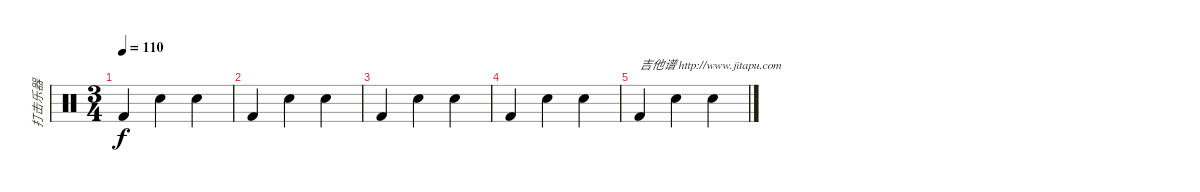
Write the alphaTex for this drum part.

\track ("打击乐器" "打击乐器") {instrument percussion}
\staff {score}
\articulation defaults
\ts (3 4)
\tempo 110
\clef neutral
\ks c "Kick (hit) 2".4{dy f} "Snare (hit) 2".4 "Snare (hit) 2".4
|
"Kick (hit) 2".4 "Snare (hit) 2".4 "Snare (hit) 2".4 |
"Kick (hit) 2".4 "Snare (hit) 2".4 "Snare (hit) 2".4 |
"Kick (hit) 2".4 "Snare (hit) 2".4 "Snare (hit) 2".4 |
"Kick (hit) 2".4{txt "吉他谱 http://www.jitapu.com"} "Snare (hit) 2".4 "Snare (hit) 2".4
